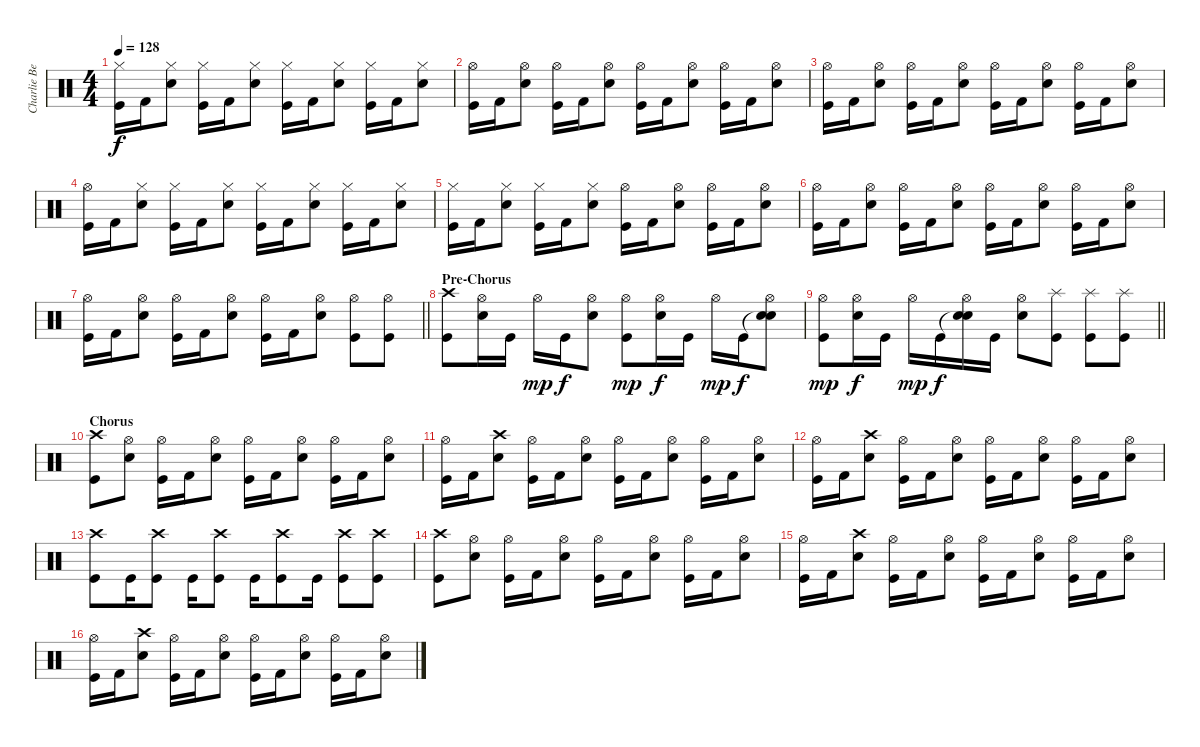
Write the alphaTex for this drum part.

\track ("Charlie Benante (Drums)" "Charlie Be") {instrument percussion}
\staff {score}
\articulation defaults
\ts (4 4)
\tempo 128
\clef neutral
\ks c
("Hi-Hat (closed)" "Kick (hit)").16{dy f} "Kick (hit) 2".16 ("Hi-Hat (closed)" "Snare (hit) 2").8 ("Hi-Hat (closed)" "Kick (hit)").16 "Kick (hit) 2".16 ("Hi-Hat (closed)" "Snare (hit) 2").8 ("Hi-Hat (closed)" "Kick (hit)").16 "Kick (hit) 2".16 ("Hi-Hat (closed)" "Snare (hit) 2").8 ("Hi-Hat (closed)" "Kick (hit)").16 "Kick (hit) 2".16 ("Hi-Hat (closed)" "Snare (hit) 2").8 |
("Hi-Hat (open)" "Kick (hit)").16 "Kick (hit) 2".16 ("Hi-Hat (open)" "Snare (hit) 2").8 ("Hi-Hat (open)" "Kick (hit)").16 "Kick (hit) 2".16 ("Hi-Hat (open)" "Snare (hit) 2").8 ("Hi-Hat (open)" "Kick (hit)").16 "Kick (hit) 2".16 ("Hi-Hat (open)" "Snare (hit) 2").8 ("Hi-Hat (open)" "Kick (hit)").16 "Kick (hit) 2".16 ("Hi-Hat (open)" "Snare (hit) 2").8 |
("Hi-Hat (open)" "Kick (hit)").16 "Kick (hit) 2".16 ("Hi-Hat (open)" "Snare (hit) 2").8 ("Hi-Hat (open)" "Kick (hit)").16 "Kick (hit) 2".16 ("Hi-Hat (open)" "Snare (hit) 2").8 ("Hi-Hat (open)" "Kick (hit)").16 "Kick (hit) 2".16 ("Hi-Hat (open)" "Snare (hit) 2").8 ("Hi-Hat (open)" "Kick (hit)").16 "Kick (hit) 2".16 ("Hi-Hat (open)" "Snare (hit) 2").8 |
("Hi-Hat (open)" "Kick (hit)").16 "Kick (hit) 2".16 ("Hi-Hat (closed)" "Snare (hit) 2").8 ("Hi-Hat (closed)" "Kick (hit)").16 "Kick (hit) 2".16 ("Hi-Hat (closed)" "Snare (hit) 2").8 ("Hi-Hat (closed)" "Kick (hit)").16 "Kick (hit) 2".16 ("Hi-Hat (closed)" "Snare (hit) 2").8 ("Hi-Hat (closed)" "Kick (hit)").16 "Kick (hit) 2".16 ("Hi-Hat (closed)" "Snare (hit) 2").8 |
("Hi-Hat (closed)" "Kick (hit)").16 "Kick (hit) 2".16 ("Hi-Hat (closed)" "Snare (hit) 2").8 ("Hi-Hat (closed)" "Kick (hit)").16 "Kick (hit) 2".16 ("Hi-Hat (closed)" "Snare (hit) 2").8 ("Hi-Hat (open)" "Kick (hit)").16 "Kick (hit) 2".16 ("Hi-Hat (open)" "Snare (hit) 2").8 ("Hi-Hat (open)" "Kick (hit)").16 "Kick (hit) 2".16 ("Hi-Hat (open)" "Snare (hit) 2").8 |
("Hi-Hat (open)" "Kick (hit)").16 "Kick (hit) 2".16 ("Hi-Hat (open)" "Snare (hit) 2").8 ("Hi-Hat (open)" "Kick (hit)").16 "Kick (hit) 2".16 ("Hi-Hat (open)" "Snare (hit) 2").8 ("Hi-Hat (open)" "Kick (hit)").16 "Kick (hit) 2".16 ("Hi-Hat (open)" "Snare (hit) 2").8 ("Hi-Hat (open)" "Kick (hit)").16 "Kick (hit) 2".16 ("Hi-Hat (open)" "Snare (hit) 2").8 |
\barLineRight lightlight
("Hi-Hat (open)" "Kick (hit)").16 "Kick (hit) 2".16 ("Hi-Hat (open)" "Snare (hit) 2").8 ("Hi-Hat (open)" "Kick (hit)").16 "Kick (hit) 2".16 ("Hi-Hat (open)" "Snare (hit) 2").8 ("Hi-Hat (open)" "Kick (hit)").16 "Kick (hit) 2".16 ("Hi-Hat (open)" "Snare (hit) 2").8 ("Hi-Hat (open)" "Kick (hit)").8 ("Hi-Hat (open)" "Kick (hit)").8 |
\section ("" "Pre-Chorus")
("Crash high (hit)" "Kick (hit)").8 ("Hi-Hat (open)" "Snare (hit) 2").16 "Kick (hit)".16 "Hi-Hat (open)".16{dy mp} "Kick (hit)".16{dy f} ("Hi-Hat (open)" "Snare (hit) 2").8 ("Hi-Hat (open)" "Kick (hit)").8{dy mp} ("Hi-Hat (open)" "Snare (hit) 2").16{dy f} "Kick (hit)".16 "Hi-Hat (open)".16{dy mp} "Kick (hit)".16{dy f} ("Snare (hit)"{t} "Hi-Hat (open)" "Snare (hit) 2").8 |
\barLineRight lightlight
("Hi-Hat (open)" "Kick (hit)").8{dy mp} ("Hi-Hat (open)" "Snare (hit) 2").16{dy f} "Kick (hit)".16 "Hi-Hat (open)".16{dy mp} "Kick (hit)".16{dy f} ("Snare (hit)"{t} "Hi-Hat (open)" "Snare (hit) 2").16 "Kick (hit)".16 ("Hi-Hat (open)" "Snare (hit) 2").8 ("Splash (hit)" "Kick (hit)").8 ("Splash (hit)" "Kick (hit)").8 ("Splash (hit)" "Kick (hit)").8 |
\section ("" "Chorus")
("Crash high (hit)" "Kick (hit)").8 ("Hi-Hat (open)" "Snare (hit) 2").8 ("Hi-Hat (open)" "Kick (hit)").16 "Kick (hit) 2".16 ("Hi-Hat (open)" "Snare (hit) 2").8 ("Hi-Hat (open)" "Kick (hit)").16 "Kick (hit) 2".16 ("Hi-Hat (open)" "Snare (hit) 2").8 ("Hi-Hat (open)" "Kick (hit)").16 "Kick (hit) 2".16 ("Hi-Hat (open)" "Snare (hit) 2").8 |
("Hi-Hat (open)" "Kick (hit)").16 "Kick (hit) 2".16 ("Crash high (hit)" "Snare (hit) 2").8 ("Hi-Hat (open)" "Kick (hit)").16 "Kick (hit) 2".16 ("Hi-Hat (open)" "Snare (hit) 2").8 ("Hi-Hat (open)" "Kick (hit)").16 "Kick (hit) 2".16 ("Hi-Hat (open)" "Snare (hit) 2").8 ("Hi-Hat (open)" "Kick (hit)").16 "Kick (hit) 2".16 ("Hi-Hat (open)" "Snare (hit) 2").8 |
("Hi-Hat (open)" "Kick (hit)").16 "Kick (hit) 2".16 ("Crash high (hit)" "Snare (hit) 2").8 ("Hi-Hat (open)" "Kick (hit)").16 "Kick (hit) 2".16 ("Hi-Hat (open)" "Snare (hit) 2").8 ("Hi-Hat (open)" "Kick (hit)").16 "Kick (hit) 2".16 ("Hi-Hat (open)" "Snare (hit) 2").8 ("Hi-Hat (open)" "Kick (hit)").16 "Kick (hit) 2".16 ("Hi-Hat (open)" "Snare (hit) 2").8 |
("Crash high (hit)" "Kick (hit)").8 "Kick (hit)".16 ("Crash high (hit)" "Kick (hit)").8 "Kick (hit)".16 ("Crash high (hit)" "Kick (hit)").8 "Kick (hit)".16 ("Crash high (hit)" "Kick (hit)").8 "Kick (hit)".16 ("Crash high (hit)" "Kick (hit)").8 ("Crash high (hit)" "Kick (hit)").8 |
("Crash high (hit)" "Kick (hit)").8 ("Hi-Hat (open)" "Snare (hit) 2").8 ("Hi-Hat (open)" "Kick (hit)").16 "Kick (hit) 2".16 ("Hi-Hat (open)" "Snare (hit) 2").8 ("Hi-Hat (open)" "Kick (hit)").16 "Kick (hit) 2".16 ("Hi-Hat (open)" "Snare (hit) 2").8 ("Hi-Hat (open)" "Kick (hit)").16 "Kick (hit) 2".16 ("Hi-Hat (open)" "Snare (hit) 2").8 |
("Hi-Hat (open)" "Kick (hit)").16 "Kick (hit) 2".16 ("Crash high (hit)" "Snare (hit) 2").8 ("Hi-Hat (open)" "Kick (hit)").16 "Kick (hit) 2".16 ("Hi-Hat (open)" "Snare (hit) 2").8 ("Hi-Hat (open)" "Kick (hit)").16 "Kick (hit) 2".16 ("Hi-Hat (open)" "Snare (hit) 2").8 ("Hi-Hat (open)" "Kick (hit)").16 "Kick (hit) 2".16 ("Hi-Hat (open)" "Snare (hit) 2").8 |
("Hi-Hat (open)" "Kick (hit)").16 "Kick (hit) 2".16 ("Crash high (hit)" "Snare (hit) 2").8 ("Hi-Hat (open)" "Kick (hit)").16 "Kick (hit) 2".16 ("Hi-Hat (open)" "Snare (hit) 2").8 ("Hi-Hat (open)" "Kick (hit)").16 "Kick (hit) 2".16 ("Hi-Hat (open)" "Snare (hit) 2").8 ("Hi-Hat (open)" "Kick (hit)").16 "Kick (hit) 2".16 ("Hi-Hat (open)" "Snare (hit) 2").8
